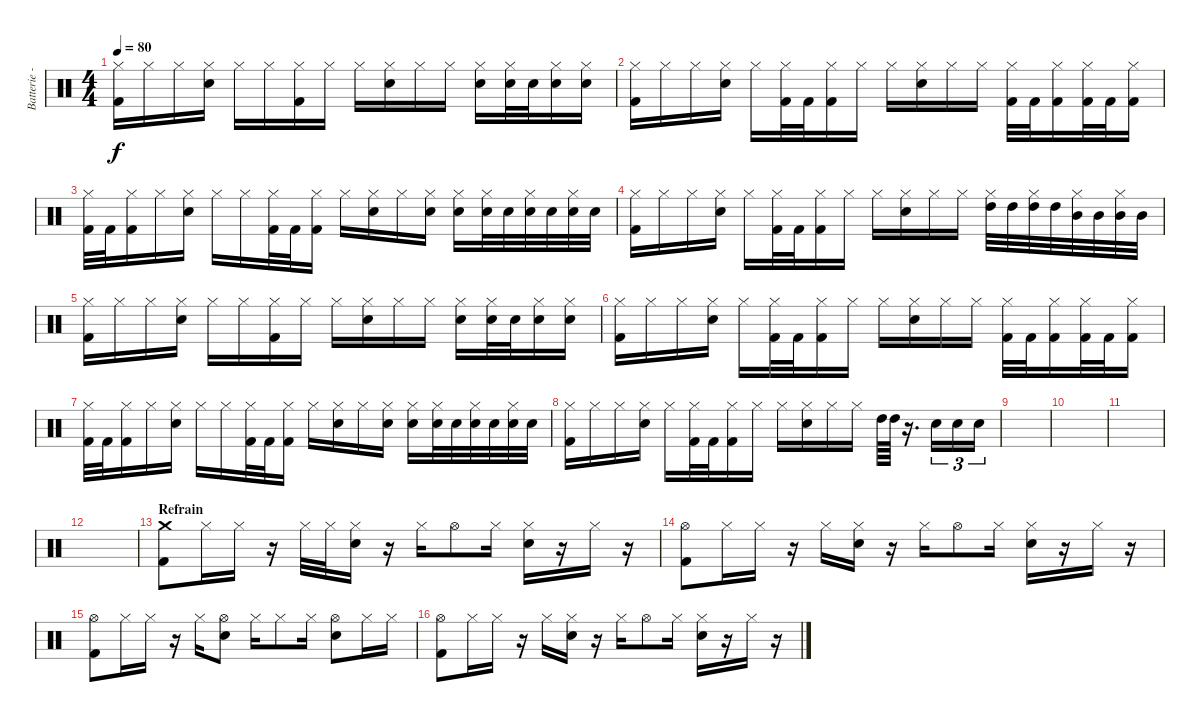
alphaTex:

\track ("Batterie - François" "Batterie -") {instrument percussion}
\staff {score}
\articulation defaults
\ts (4 4)
\tempo 80
\clef neutral
\ks c
("Hi-Hat (closed)" "Kick (hit) 2").16{dy f} "Hi-Hat (closed)".16 "Hi-Hat (closed)".16 ("Hi-Hat (closed)" "Electric Snare (hit)").16 "Hi-Hat (closed)".16 "Hi-Hat (closed)".16 ("Hi-Hat (closed)" "Kick (hit) 2").16 "Hi-Hat (closed)".16 "Hi-Hat (closed)".16 ("Hi-Hat (closed)" "Electric Snare (hit)").16 "Hi-Hat (closed)".16 "Hi-Hat (closed)".16 ("Hi-Hat (closed)" "Electric Snare (hit)").16 ("Hi-Hat (closed)" "Electric Snare (hit)").32 "Electric Snare (hit)".32 ("Hi-Hat (closed)" "Electric Snare (hit)").16 ("Hi-Hat (closed)" "Electric Snare (hit)").16 |
("Hi-Hat (closed)" "Kick (hit) 2").16 "Hi-Hat (closed)".16 "Hi-Hat (closed)".16 ("Hi-Hat (closed)" "Electric Snare (hit)").16 "Hi-Hat (closed)".16 ("Hi-Hat (closed)" "Kick (hit) 2").32 "Kick (hit) 2".32 ("Hi-Hat (closed)" "Kick (hit) 2").16 "Hi-Hat (closed)".16 "Hi-Hat (closed)".16 ("Hi-Hat (closed)" "Electric Snare (hit)").16 "Hi-Hat (closed)".16 "Hi-Hat (closed)".16 ("Hi-Hat (closed)" "Kick (hit) 2").32 "Kick (hit) 2".32 ("Hi-Hat (closed)" "Kick (hit) 2").16 ("Hi-Hat (closed)" "Kick (hit) 2").32 "Kick (hit) 2".32 ("Hi-Hat (closed)" "Kick (hit) 2").16 |
("Hi-Hat (closed)" "Kick (hit) 2").32 "Kick (hit) 2".32 ("Hi-Hat (closed)" "Kick (hit) 2").16 "Hi-Hat (closed)".16 ("Hi-Hat (closed)" "Electric Snare (hit)").16 "Hi-Hat (closed)".16 "Hi-Hat (closed)".16 ("Hi-Hat (closed)" "Kick (hit) 2").32 "Kick (hit) 2".32 ("Hi-Hat (closed)" "Kick (hit) 2").16 "Hi-Hat (closed)".16 ("Hi-Hat (closed)" "Electric Snare (hit)").16 "Hi-Hat (closed)".16 ("Hi-Hat (closed)" "Electric Snare (hit)").16 ("Hi-Hat (closed)" "Electric Snare (hit)").16 ("Hi-Hat (closed)" "Electric Snare (hit)").32 "Electric Snare (hit)".32 ("Hi-Hat (closed)" "Electric Snare (hit)").32 "Electric Snare (hit)".32 ("Hi-Hat (closed)" "Electric Snare (hit)").32 "Electric Snare (hit)".32 |
("Hi-Hat (closed)" "Kick (hit) 2").16 "Hi-Hat (closed)".16 "Hi-Hat (closed)".16 ("Hi-Hat (closed)" "Electric Snare (hit)").16 "Hi-Hat (closed)".16 ("Hi-Hat (closed)" "Kick (hit) 2").32 "Kick (hit) 2".32 ("Hi-Hat (closed)" "Kick (hit) 2").16 "Hi-Hat (closed)".16 "Hi-Hat (closed)".16 ("Hi-Hat (closed)" "Electric Snare (hit)").16 "Hi-Hat (closed)".16 "Hi-Hat (closed)".16 ("Hi-Hat (closed)" "High Tom (hit)").32 "High Tom (hit)".32 ("Hi-Hat (closed)" "High Tom (hit)").32 "High Tom (hit)".32 ("Hi-Hat (closed)" "Mid Tom (hit)").32 "Mid Tom (hit)".32 ("Hi-Hat (closed)" "Mid Tom (hit)").32 "Mid Tom (hit)".32 |
("Hi-Hat (closed)" "Kick (hit) 2").16 "Hi-Hat (closed)".16 "Hi-Hat (closed)".16 ("Hi-Hat (closed)" "Electric Snare (hit)").16 "Hi-Hat (closed)".16 "Hi-Hat (closed)".16 ("Hi-Hat (closed)" "Kick (hit) 2").16 "Hi-Hat (closed)".16 "Hi-Hat (closed)".16 ("Hi-Hat (closed)" "Electric Snare (hit)").16 "Hi-Hat (closed)".16 "Hi-Hat (closed)".16 ("Hi-Hat (closed)" "Electric Snare (hit)").16 ("Hi-Hat (closed)" "Electric Snare (hit)").32 "Electric Snare (hit)".32 ("Hi-Hat (closed)" "Electric Snare (hit)").16 ("Hi-Hat (closed)" "Electric Snare (hit)").16 |
("Hi-Hat (closed)" "Kick (hit) 2").16 "Hi-Hat (closed)".16 "Hi-Hat (closed)".16 ("Hi-Hat (closed)" "Electric Snare (hit)").16 "Hi-Hat (closed)".16 ("Hi-Hat (closed)" "Kick (hit) 2").32 "Kick (hit) 2".32 ("Hi-Hat (closed)" "Kick (hit) 2").16 "Hi-Hat (closed)".16 "Hi-Hat (closed)".16 ("Hi-Hat (closed)" "Electric Snare (hit)").16 "Hi-Hat (closed)".16 "Hi-Hat (closed)".16 ("Hi-Hat (closed)" "Kick (hit) 2").32 "Kick (hit) 2".32 ("Hi-Hat (closed)" "Kick (hit) 2").16 ("Hi-Hat (closed)" "Kick (hit) 2").32 "Kick (hit) 2".32 ("Hi-Hat (closed)" "Kick (hit) 2").16 |
("Hi-Hat (closed)" "Kick (hit) 2").32 "Kick (hit) 2".32 ("Hi-Hat (closed)" "Kick (hit) 2").16 "Hi-Hat (closed)".16 ("Hi-Hat (closed)" "Electric Snare (hit)").16 "Hi-Hat (closed)".16 "Hi-Hat (closed)".16 ("Hi-Hat (closed)" "Kick (hit) 2").32 "Kick (hit) 2".32 ("Hi-Hat (closed)" "Kick (hit) 2").16 "Hi-Hat (closed)".16 ("Hi-Hat (closed)" "Electric Snare (hit)").16 "Hi-Hat (closed)".16 ("Hi-Hat (closed)" "Electric Snare (hit)").16 ("Hi-Hat (closed)" "Electric Snare (hit)").16 ("Hi-Hat (closed)" "Electric Snare (hit)").32 "Electric Snare (hit)".32 ("Hi-Hat (closed)" "Electric Snare (hit)").32 "Electric Snare (hit)".32 ("Hi-Hat (closed)" "Electric Snare (hit)").32 "Electric Snare (hit)".32 |
("Hi-Hat (closed)" "Kick (hit) 2").16 "Hi-Hat (closed)".16 "Hi-Hat (closed)".16 ("Hi-Hat (closed)" "Electric Snare (hit)").16 "Hi-Hat (closed)".16 ("Hi-Hat (closed)" "Kick (hit) 2").32 "Kick (hit) 2".32 ("Hi-Hat (closed)" "Kick (hit) 2").16 "Hi-Hat (closed)".16 "Hi-Hat (closed)".16 ("Hi-Hat (closed)" "Electric Snare (hit)").16 "Hi-Hat (closed)".16 "Hi-Hat (closed)".16 "High Tom (hit)".64 "High Tom (hit)".64 r.16{d} "Electric Snare (hit)".16{tu (3 2)} "Electric Snare (hit)".16{tu (3 2)} "Electric Snare (hit)".16{tu (3 2)} |
|
|
|
|
\section ("" "Refrain")
("Crash medium (hit)" "Kick (hit) 2").8 "Hi-Hat (closed)".16 "Hi-Hat (closed)".16 r.16 "Hi-Hat (closed)".32 "Hi-Hat (closed)".32 ("Hi-Hat (closed)" "Electric Snare (hit)").16 r.16 "Hi-Hat (closed)".16 "Hi-Hat (open)".8 "Hi-Hat (closed)".16 ("Hi-Hat (closed)" "Electric Snare (hit)").16 r.16 "Hi-Hat (closed)".16 r.16 |
("Hi-Hat (open)" "Kick (hit) 2").8 "Hi-Hat (closed)".16 "Hi-Hat (closed)".16 r.16 "Hi-Hat (closed)".16 ("Hi-Hat (closed)" "Electric Snare (hit)").16 r.16 "Hi-Hat (closed)".16 "Hi-Hat (open)".8 "Hi-Hat (closed)".16 ("Hi-Hat (closed)" "Electric Snare (hit)").16 r.16 "Hi-Hat (closed)".16 r.16 |
("Hi-Hat (open)" "Kick (hit) 2").8 "Hi-Hat (closed)".16 "Hi-Hat (closed)".16 r.16 "Hi-Hat (closed)".16 ("Hi-Hat (open)" "Electric Snare (hit)").8 "Hi-Hat (closed)".16 "Hi-Hat (closed)".8 "Hi-Hat (closed)".16 ("Hi-Hat (open)" "Electric Snare (hit)").8 "Hi-Hat (closed)".16 "Hi-Hat (closed)".16 |
("Hi-Hat (open)" "Kick (hit) 2").8 "Hi-Hat (closed)".16 "Hi-Hat (closed)".16 r.16 "Hi-Hat (closed)".16 ("Hi-Hat (closed)" "Electric Snare (hit)").16 r.16 "Hi-Hat (closed)".16 "Hi-Hat (open)".8 "Hi-Hat (closed)".16 ("Hi-Hat (closed)" "Electric Snare (hit)").16 r.16 "Hi-Hat (closed)".16 r.16
